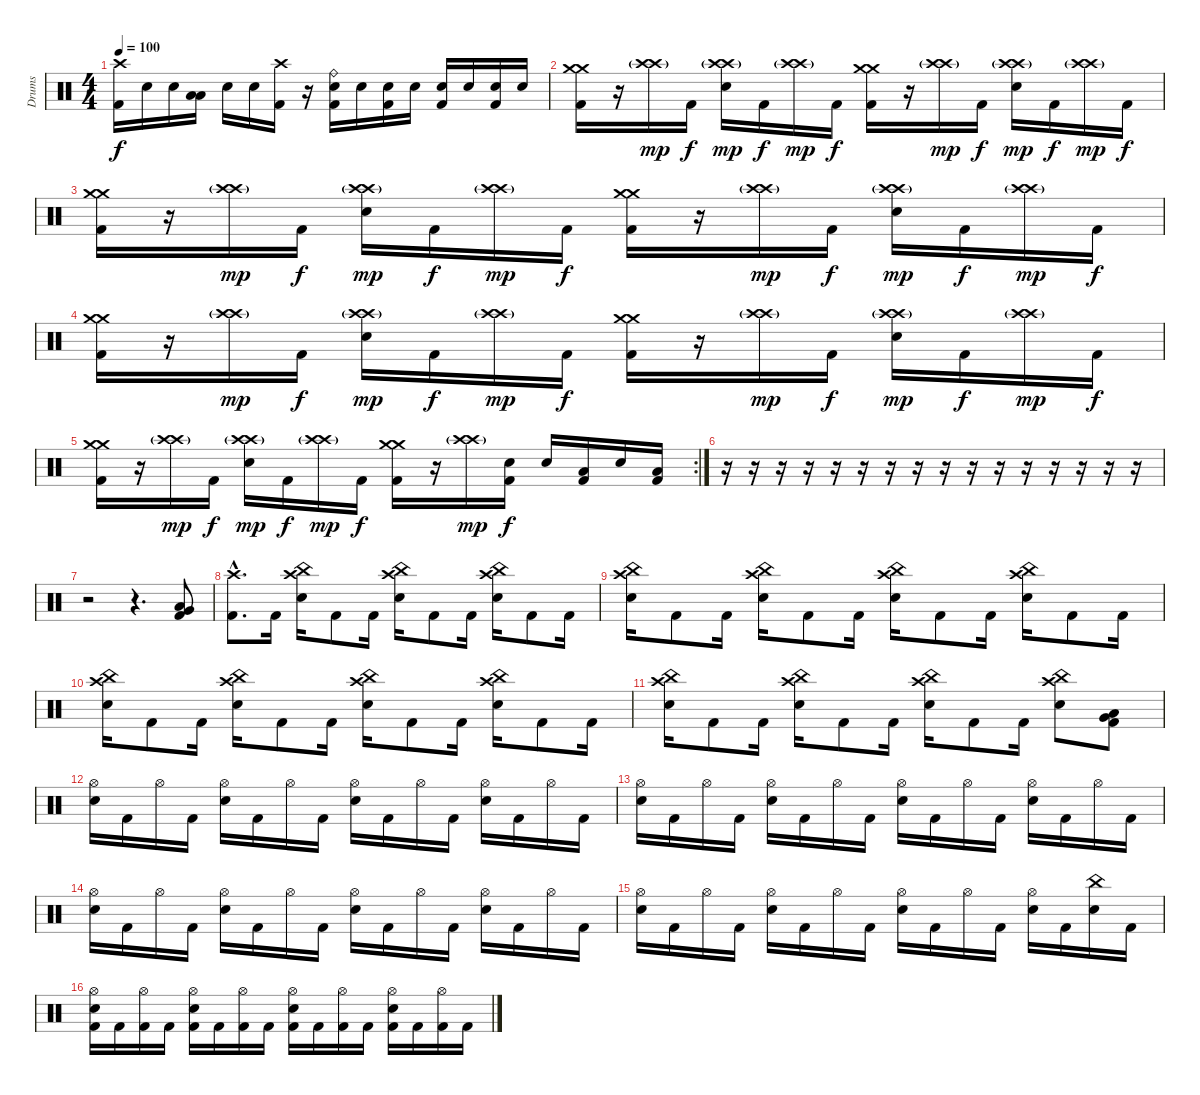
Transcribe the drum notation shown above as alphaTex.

\track ("Drums" "Drums") {instrument percussion}
\staff {score}
\articulation defaults
\ts (4 4)
\tempo 100
\clef neutral
\ks c
("Crash high (hit)" "Kick (hit) 2").16{dy f} "Electric Snare (hit)".16 "Electric Snare (hit)".16 ("Low Tom (hit)" "Low Tom (hit)").16 "Electric Snare (hit)".16 "Electric Snare (hit)".16 ("Crash high (hit)" "Kick (hit) 2").16 r.16 ("Ride (bell)" "Electric Snare (hit)" "Kick (hit) 2").16 "Electric Snare (hit)".16 ("Electric Snare (hit)" "Kick (hit) 2").16 "Electric Snare (hit)".16 ("Electric Snare (hit)" "Kick (hit) 2").16 "Electric Snare (hit)".16 ("Electric Snare (hit)" "Kick (hit) 2").16 "Electric Snare (hit)".16 |
("Crash medium (hit)" "Crash medium (hit)" "Kick (hit) 2").16 r.16 ("Crash high (hit)"{g} "Crash high (hit)").16{dy mp} "Kick (hit) 2".16{dy f} ("Crash high (hit)"{g} "Crash high (hit)" "Electric Snare (hit)").16{dy mp} "Kick (hit) 2".16{dy f} ("Crash high (hit)"{g} "Crash high (hit)").16{dy mp} "Kick (hit) 2".16{dy f} ("Crash medium (hit)" "Crash medium (hit)" "Kick (hit) 2").16 r.16 ("Crash high (hit)"{g} "Crash high (hit)").16{dy mp} "Kick (hit) 2".16{dy f} ("Crash high (hit)"{g} "Crash high (hit)" "Electric Snare (hit)").16{dy mp} "Kick (hit) 2".16{dy f} ("Crash high (hit)"{g} "Crash high (hit)").16{dy mp} "Kick (hit) 2".16{dy f} |
("Crash medium (hit)" "Crash medium (hit)" "Kick (hit) 2").16 r.16 ("Crash high (hit)"{g} "Crash high (hit)").16{dy mp} "Kick (hit) 2".16{dy f} ("Crash high (hit)"{g} "Crash high (hit)" "Electric Snare (hit)").16{dy mp} "Kick (hit) 2".16{dy f} ("Crash high (hit)"{g} "Crash high (hit)").16{dy mp} "Kick (hit) 2".16{dy f} ("Crash medium (hit)" "Crash medium (hit)" "Kick (hit) 2").16 r.16 ("Crash high (hit)"{g} "Crash high (hit)").16{dy mp} "Kick (hit) 2".16{dy f} ("Crash high (hit)"{g} "Crash high (hit)" "Electric Snare (hit)").16{dy mp} "Kick (hit) 2".16{dy f} ("Crash high (hit)"{g} "Crash high (hit)").16{dy mp} "Kick (hit) 2".16{dy f} |
("Crash medium (hit)" "Crash medium (hit)" "Kick (hit) 2").16 r.16 ("Crash high (hit)"{g} "Crash high (hit)").16{dy mp} "Kick (hit) 2".16{dy f} ("Crash high (hit)"{g} "Crash high (hit)" "Electric Snare (hit)").16{dy mp} "Kick (hit) 2".16{dy f} ("Crash high (hit)"{g} "Crash high (hit)").16{dy mp} "Kick (hit) 2".16{dy f} ("Crash medium (hit)" "Crash medium (hit)" "Kick (hit) 2").16 r.16 ("Crash high (hit)"{g} "Crash high (hit)").16{dy mp} "Kick (hit) 2".16{dy f} ("Crash high (hit)"{g} "Crash high (hit)" "Electric Snare (hit)").16{dy mp} "Kick (hit) 2".16{dy f} ("Crash high (hit)"{g} "Crash high (hit)").16{dy mp} "Kick (hit) 2".16{dy f} |
\rc 2
("Crash medium (hit)" "Crash medium (hit)" "Kick (hit) 2").16 r.16 ("Crash high (hit)"{g} "Crash high (hit)").16{dy mp} "Kick (hit) 2".16{dy f} ("Crash high (hit)"{g} "Crash high (hit)" "Electric Snare (hit)").16{dy mp} "Kick (hit) 2".16{dy f} ("Crash high (hit)"{g} "Crash high (hit)").16{dy mp} "Kick (hit) 2".16{dy f} ("Crash medium (hit)" "Crash medium (hit)" "Kick (hit) 2").16 r.16 ("Crash high (hit)"{g} "Crash high (hit)").16{dy mp} ("Electric Snare (hit)" "Kick (hit) 2").16{dy f} "Electric Snare (hit)".16 ("Low Tom (hit)" "Kick (hit) 2").16 "Electric Snare (hit)".16 ("Low Floor Tom (hit)" "Kick (hit) 2").16 |
r.16 r.16 r.16 r.16 r.16 r.16 r.16 r.16 r.16 r.16 r.16 r.16 r.16 r.16 r.16 r.16 |
r.2 r.4{d} ("Low Floor Tom (hit)" "Very Low Tom (hit)" "Kick (hit) 2").8 |
("Crash high (hit)"{hac} "Kick (hit) 2"{hac}).8{d} "Kick (hit) 2".16 ("China (hit)" "Crash high (hit)" "Electric Snare (hit)").16 "Kick (hit) 2".8 "Kick (hit) 2".16 ("China (hit)" "Crash high (hit)" "Electric Snare (hit)").16 "Kick (hit) 2".8 "Kick (hit) 2".16 ("China (hit)" "Crash high (hit)" "Electric Snare (hit)").16 "Kick (hit) 2".8 "Kick (hit) 2".16 |
("China (hit)" "Crash high (hit)" "Electric Snare (hit)").16 "Kick (hit) 2".8 "Kick (hit) 2".16 ("China (hit)" "Crash high (hit)" "Electric Snare (hit)").16 "Kick (hit) 2".8 "Kick (hit) 2".16 ("China (hit)" "Crash high (hit)" "Electric Snare (hit)").16 "Kick (hit) 2".8 "Kick (hit) 2".16 ("China (hit)" "Crash high (hit)" "Electric Snare (hit)").16 "Kick (hit) 2".8 "Kick (hit) 2".16 |
("China (hit)" "Crash high (hit)" "Electric Snare (hit)").16 "Kick (hit) 2".8 "Kick (hit) 2".16 ("China (hit)" "Crash high (hit)" "Electric Snare (hit)").16 "Kick (hit) 2".8 "Kick (hit) 2".16 ("China (hit)" "Crash high (hit)" "Electric Snare (hit)").16 "Kick (hit) 2".8 "Kick (hit) 2".16 ("China (hit)" "Crash high (hit)" "Electric Snare (hit)").16 "Kick (hit) 2".8 "Kick (hit) 2".16 |
("China (hit)" "Crash high (hit)" "Electric Snare (hit)").16 "Kick (hit) 2".8 "Kick (hit) 2".16 ("China (hit)" "Crash high (hit)" "Electric Snare (hit)").16 "Kick (hit) 2".8 "Kick (hit) 2".16 ("China (hit)" "Crash high (hit)" "Electric Snare (hit)").16 "Kick (hit) 2".8 "Kick (hit) 2".16 ("China (hit)" "Crash high (hit)" "Electric Snare (hit)").8 ("Low Floor Tom (hit)" "Very Low Tom (hit)" "Kick (hit) 2").8 |
("Hi-Hat (open)" "Electric Snare (hit)").16 "Kick (hit) 2".16 "Hi-Hat (open)".16 "Kick (hit) 2".16 ("Hi-Hat (open)" "Electric Snare (hit)").16 "Kick (hit) 2".16 "Hi-Hat (open)".16 "Kick (hit) 2".16 ("Hi-Hat (open)" "Electric Snare (hit)").16 "Kick (hit) 2".16 "Hi-Hat (open)".16 "Kick (hit) 2".16 ("Hi-Hat (open)" "Electric Snare (hit)").16 "Kick (hit) 2".16 "Hi-Hat (open)".16 "Kick (hit) 2".16 |
("Hi-Hat (open)" "Electric Snare (hit)").16 "Kick (hit) 2".16 "Hi-Hat (open)".16 "Kick (hit) 2".16 ("Hi-Hat (open)" "Electric Snare (hit)").16 "Kick (hit) 2".16 "Hi-Hat (open)".16 "Kick (hit) 2".16 ("Hi-Hat (open)" "Electric Snare (hit)").16 "Kick (hit) 2".16 "Hi-Hat (open)".16 "Kick (hit) 2".16 ("Hi-Hat (open)" "Electric Snare (hit)").16 "Kick (hit) 2".16 "Hi-Hat (open)".16 "Kick (hit) 2".16 |
("Hi-Hat (open)" "Electric Snare (hit)").16 "Kick (hit) 2".16 "Hi-Hat (open)".16 "Kick (hit) 2".16 ("Hi-Hat (open)" "Electric Snare (hit)").16 "Kick (hit) 2".16 "Hi-Hat (open)".16 "Kick (hit) 2".16 ("Hi-Hat (open)" "Electric Snare (hit)").16 "Kick (hit) 2".16 "Hi-Hat (open)".16 "Kick (hit) 2".16 ("Hi-Hat (open)" "Electric Snare (hit)").16 "Kick (hit) 2".16 "Hi-Hat (open)".16 "Kick (hit) 2".16 |
("Hi-Hat (open)" "Electric Snare (hit)").16 "Kick (hit) 2".16 "Hi-Hat (open)".16 "Kick (hit) 2".16 ("Hi-Hat (open)" "Electric Snare (hit)").16 "Kick (hit) 2".16 "Hi-Hat (open)".16 "Kick (hit) 2".16 ("Hi-Hat (open)" "Electric Snare (hit)").16 "Kick (hit) 2".16 "Hi-Hat (open)".16 "Kick (hit) 2".16 ("Hi-Hat (open)" "Electric Snare (hit)").16 "Kick (hit) 2".16 ("China (hit)" "Electric Snare (hit)").16 "Kick (hit) 2".16 |
("Hi-Hat (open)" "Electric Snare (hit)" "Kick (hit) 2").16 "Kick (hit) 2".16 ("Hi-Hat (open)" "Kick (hit) 2").16 "Kick (hit) 2".16 ("Hi-Hat (open)" "Electric Snare (hit)" "Kick (hit) 2").16 "Kick (hit) 2".16 ("Hi-Hat (open)" "Kick (hit) 2").16 "Kick (hit) 2".16 ("Hi-Hat (open)" "Electric Snare (hit)" "Kick (hit) 2").16 "Kick (hit) 2".16 ("Hi-Hat (open)" "Kick (hit) 2").16 "Kick (hit) 2".16 ("Hi-Hat (open)" "Electric Snare (hit)" "Kick (hit) 2").16 "Kick (hit) 2".16 ("Hi-Hat (open)" "Kick (hit) 2").16 "Kick (hit) 2".16
